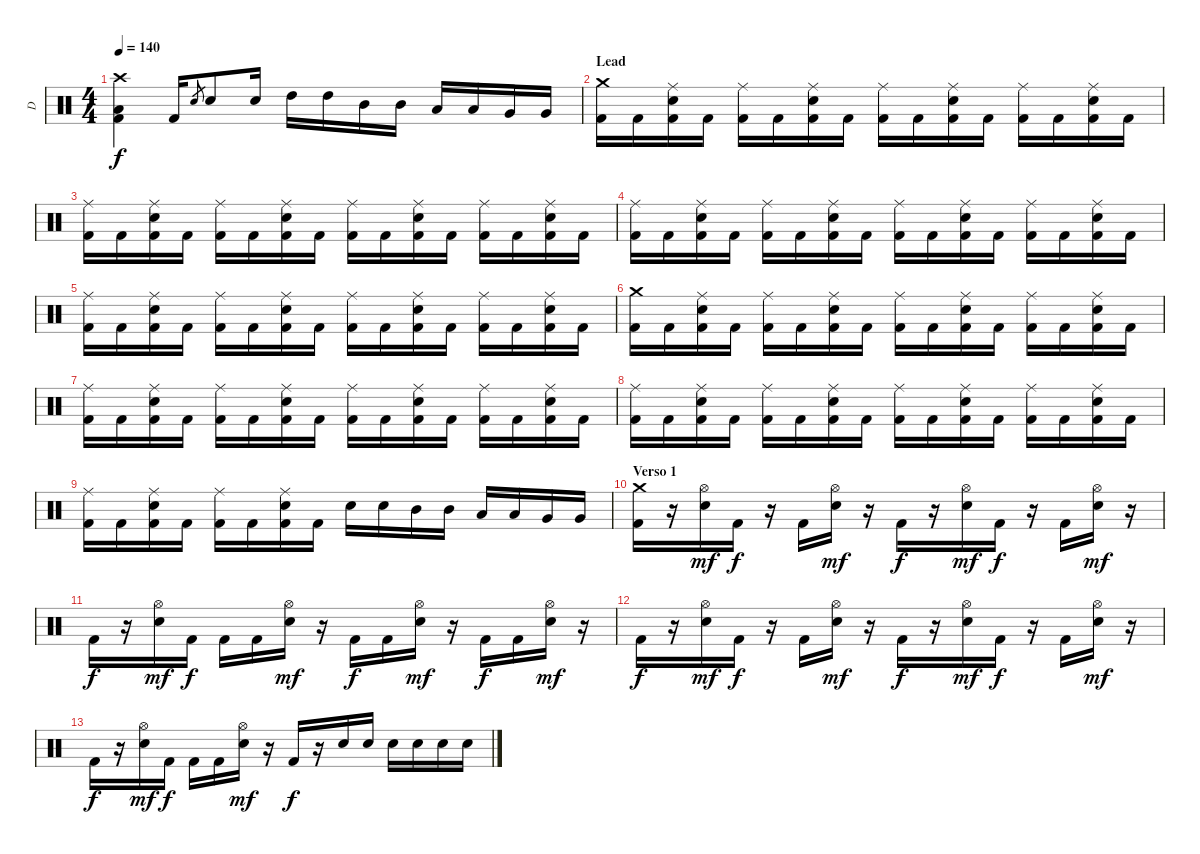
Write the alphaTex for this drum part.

\track ("D" "D") {instrument percussion}
\staff {score}
\articulation defaults
\ts (4 4)
\tempo 140
\clef neutral
\ks c
("Crash high (hit)" "Low Floor Tom (hit)" "Kick (hit) 2").4{dy f} "Kick (hit) 2".16 "Electric Snare (hit)".8{gr} "Electric Snare (hit)".8 "Electric Snare (hit)".16 "High Tom (hit)".16 "High Tom (hit)".16 "Mid Tom (hit)".16 "Mid Tom (hit)".16 "Low Tom (hit)".16 "Low Tom (hit)".16 "Very Low Tom (hit)".16 "Very Low Tom (hit)".16 |
\section ("" "Lead")
("Crash medium (hit)" "Kick (hit) 2").16 "Kick (hit) 2".16 ("Ride (middle)" "Electric Snare (hit)" "Kick (hit) 2").16 "Kick (hit) 2".16 ("Ride (middle)" "Kick (hit) 2").16 "Kick (hit) 2".16 ("Ride (middle)" "Electric Snare (hit)" "Kick (hit) 2").16 "Kick (hit) 2".16 ("Ride (middle)" "Kick (hit) 2").16 "Kick (hit) 2".16 ("Ride (middle)" "Electric Snare (hit)" "Kick (hit) 2").16 "Kick (hit) 2".16 ("Ride (middle)" "Kick (hit) 2").16 "Kick (hit) 2".16 ("Ride (middle)" "Electric Snare (hit)" "Kick (hit) 2").16 "Kick (hit) 2".16 |
("Ride (middle)" "Kick (hit) 2").16 "Kick (hit) 2".16 ("Ride (middle)" "Electric Snare (hit)" "Kick (hit) 2").16 "Kick (hit) 2".16 ("Ride (middle)" "Kick (hit) 2").16 "Kick (hit) 2".16 ("Ride (middle)" "Electric Snare (hit)" "Kick (hit) 2").16 "Kick (hit) 2".16 ("Ride (middle)" "Kick (hit) 2").16 "Kick (hit) 2".16 ("Ride (middle)" "Electric Snare (hit)" "Kick (hit) 2").16 "Kick (hit) 2".16 ("Ride (middle)" "Kick (hit) 2").16 "Kick (hit) 2".16 ("Ride (middle)" "Electric Snare (hit)" "Kick (hit) 2").16 "Kick (hit) 2".16 |
("Ride (middle)" "Kick (hit) 2").16 "Kick (hit) 2".16 ("Ride (middle)" "Electric Snare (hit)" "Kick (hit) 2").16 "Kick (hit) 2".16 ("Ride (middle)" "Kick (hit) 2").16 "Kick (hit) 2".16 ("Ride (middle)" "Electric Snare (hit)" "Kick (hit) 2").16 "Kick (hit) 2".16 ("Ride (middle)" "Kick (hit) 2").16 "Kick (hit) 2".16 ("Ride (middle)" "Electric Snare (hit)" "Kick (hit) 2").16 "Kick (hit) 2".16 ("Ride (middle)" "Kick (hit) 2").16 "Kick (hit) 2".16 ("Ride (middle)" "Electric Snare (hit)" "Kick (hit) 2").16 "Kick (hit) 2".16 |
("Ride (middle)" "Kick (hit) 2").16 "Kick (hit) 2".16 ("Ride (middle)" "Electric Snare (hit)" "Kick (hit) 2").16 "Kick (hit) 2".16 ("Ride (middle)" "Kick (hit) 2").16 "Kick (hit) 2".16 ("Ride (middle)" "Electric Snare (hit)" "Kick (hit) 2").16 "Kick (hit) 2".16 ("Ride (middle)" "Kick (hit) 2").16 "Kick (hit) 2".16 ("Ride (middle)" "Electric Snare (hit)" "Kick (hit) 2").16 "Kick (hit) 2".16 ("Ride (middle)" "Kick (hit) 2").16 "Kick (hit) 2".16 ("Ride (middle)" "Electric Snare (hit)" "Kick (hit) 2").16 "Kick (hit) 2".16 |
("Crash medium (hit)" "Kick (hit) 2").16 "Kick (hit) 2".16 ("Ride (middle)" "Electric Snare (hit)" "Kick (hit) 2").16 "Kick (hit) 2".16 ("Ride (middle)" "Kick (hit) 2").16 "Kick (hit) 2".16 ("Ride (middle)" "Electric Snare (hit)" "Kick (hit) 2").16 "Kick (hit) 2".16 ("Ride (middle)" "Kick (hit) 2").16 "Kick (hit) 2".16 ("Ride (middle)" "Electric Snare (hit)" "Kick (hit) 2").16 "Kick (hit) 2".16 ("Ride (middle)" "Kick (hit) 2").16 "Kick (hit) 2".16 ("Ride (middle)" "Electric Snare (hit)" "Kick (hit) 2").16 "Kick (hit) 2".16 |
("Ride (middle)" "Kick (hit) 2").16 "Kick (hit) 2".16 ("Ride (middle)" "Electric Snare (hit)" "Kick (hit) 2").16 "Kick (hit) 2".16 ("Ride (middle)" "Kick (hit) 2").16 "Kick (hit) 2".16 ("Ride (middle)" "Electric Snare (hit)" "Kick (hit) 2").16 "Kick (hit) 2".16 ("Ride (middle)" "Kick (hit) 2").16 "Kick (hit) 2".16 ("Ride (middle)" "Electric Snare (hit)" "Kick (hit) 2").16 "Kick (hit) 2".16 ("Ride (middle)" "Kick (hit) 2").16 "Kick (hit) 2".16 ("Ride (middle)" "Electric Snare (hit)" "Kick (hit) 2").16 "Kick (hit) 2".16 |
("Ride (middle)" "Kick (hit) 2").16 "Kick (hit) 2".16 ("Ride (middle)" "Electric Snare (hit)" "Kick (hit) 2").16 "Kick (hit) 2".16 ("Ride (middle)" "Kick (hit) 2").16 "Kick (hit) 2".16 ("Ride (middle)" "Electric Snare (hit)" "Kick (hit) 2").16 "Kick (hit) 2".16 ("Ride (middle)" "Kick (hit) 2").16 "Kick (hit) 2".16 ("Ride (middle)" "Electric Snare (hit)" "Kick (hit) 2").16 "Kick (hit) 2".16 ("Ride (middle)" "Kick (hit) 2").16 "Kick (hit) 2".16 ("Ride (middle)" "Electric Snare (hit)" "Kick (hit) 2").16 "Kick (hit) 2".16 |
("Ride (middle)" "Kick (hit) 2").16 "Kick (hit) 2".16 ("Ride (middle)" "Electric Snare (hit)" "Kick (hit) 2").16 "Kick (hit) 2".16 ("Ride (middle)" "Kick (hit) 2").16 "Kick (hit) 2".16 ("Ride (middle)" "Electric Snare (hit)" "Kick (hit) 2").16 "Kick (hit) 2".16 "Electric Snare (hit)".16 "Electric Snare (hit)".16 "Mid Tom (hit)".16 "Mid Tom (hit)".16 "Low Tom (hit)".16 "Low Tom (hit)".16 "Very Low Tom (hit)".16 "Very Low Tom (hit)".16 |
\section ("" "Verso 1")
("Crash medium (hit)" "Kick (hit) 2").16 r.16 ("Hi-Hat (open)" "Electric Snare (hit)").16{dy mf} "Kick (hit) 2".16{dy f} r.16 "Kick (hit) 2".16 ("Hi-Hat (open)" "Electric Snare (hit)").16{dy mf} r.16 "Kick (hit) 2".16{dy f} r.16 ("Hi-Hat (open)" "Electric Snare (hit)").16{dy mf} "Kick (hit) 2".16{dy f} r.16 "Kick (hit) 2".16 ("Hi-Hat (open)" "Electric Snare (hit)").16{dy mf} r.16 |
"Kick (hit) 2".16{dy f} r.16 ("Hi-Hat (open)" "Electric Snare (hit)").16{dy mf} "Kick (hit) 2".16{dy f} "Kick (hit) 2".16 "Kick (hit) 2".16 ("Hi-Hat (open)" "Electric Snare (hit)").16{dy mf} r.16 "Kick (hit) 2".16{dy f} "Kick (hit) 2".16 ("Hi-Hat (open)" "Electric Snare (hit)").16{dy mf} r.16 "Kick (hit) 2".16{dy f} "Kick (hit) 2".16 ("Hi-Hat (open)" "Electric Snare (hit)").16{dy mf} r.16 |
"Kick (hit) 2".16{dy f} r.16 ("Hi-Hat (open)" "Electric Snare (hit)").16{dy mf} "Kick (hit) 2".16{dy f} r.16 "Kick (hit) 2".16 ("Hi-Hat (open)" "Electric Snare (hit)").16{dy mf} r.16 "Kick (hit) 2".16{dy f} r.16 ("Hi-Hat (open)" "Electric Snare (hit)").16{dy mf} "Kick (hit) 2".16{dy f} r.16 "Kick (hit) 2".16 ("Hi-Hat (open)" "Electric Snare (hit)").16{dy mf} r.16 |
"Kick (hit) 2".16{dy f} r.16 ("Hi-Hat (open)" "Electric Snare (hit)").16{dy mf} "Kick (hit) 2".16{dy f} "Kick (hit) 2".16 "Kick (hit) 2".16 ("Hi-Hat (open)" "Electric Snare (hit)").16{dy mf} r.16 "Kick (hit) 2".16{dy f} r.16 "Electric Snare (hit)".16 "Electric Snare (hit)".16 "Electric Snare (hit)".16 "Electric Snare (hit)".16 "Electric Snare (hit)".16 "Electric Snare (hit)".16
